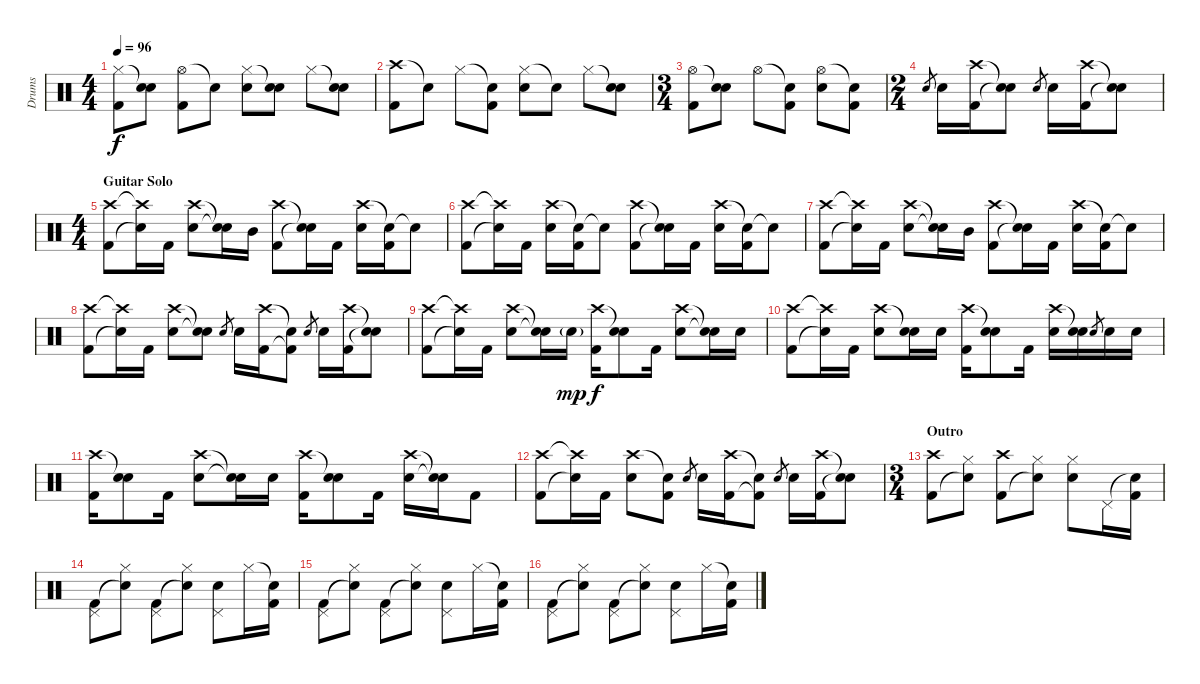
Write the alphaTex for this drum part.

\track ("Drums" "Drums") {instrument percussion}
\staff {score}
\articulation defaults
\ts (4 4)
\tempo 96
\clef neutral
\ks c
("Hi-Hat (closed)" "Kick (hit) 2").8{dy f} ("Snare (hit)"{t} "Electric Snare (hit)").8 ("Hi-Hat (open)" "Kick (hit) 2").8 "Snare (hit)"{t}.8 ("Hi-Hat (closed)" "Electric Snare (hit)").8 ("Snare (hit)"{t} "Electric Snare (hit)").8 "Hi-Hat (closed)".8 ("Snare (hit)"{t} "Electric Snare (hit)").8 |
("Crash high (hit)" "Kick (hit) 2").8 "Snare (hit)"{t}.8 "Hi-Hat (closed)".8 ("Snare (hit)"{t} "Kick (hit) 2").8 ("Hi-Hat (closed)" "Electric Snare (hit)").8 "Snare (hit)"{t}.8 "Hi-Hat (closed)".8 ("Snare (hit)"{t} "Electric Snare (hit)").8 |
\ts (3 4)
("Hi-Hat (open)" "Kick (hit) 2").8 ("Snare (hit)"{t} "Electric Snare (hit)").8 "Hi-Hat (open)".8 ("Snare (hit)"{t} "Kick (hit) 2").8 ("Hi-Hat (open)" "Electric Snare (hit)").8 ("Snare (hit)"{t} "Kick (hit) 2").8 |
\ts (2 4)
"Electric Snare (hit)".8{gr} "Electric Snare (hit)".16 ("Crash high (hit)" "Kick (hit) 2").16 ("Snare (hit)"{t} "Snare (hit)"{t}).8 "Electric Snare (hit)".8{gr} "Electric Snare (hit)".16 ("Crash high (hit)" "Kick (hit) 2").16 ("Snare (hit)"{t} "Snare (hit)"{t}).8 |
\ts (4 4)
\section ("" "Guitar Solo")
("Crash high (hit)" "Kick (hit) 2").8 ("Crash high (hit)"{t} "Snare (hit)"{t}).16 "Kick (hit) 2".16 ("Crash high (hit)" "Electric Snare (hit)").8 ("Snare (hit)"{t} "Snare (hit)"{t}).16 "Mid Tom (hit)".16 ("Crash high (hit)" "Kick (hit) 2").8 ("Snare (hit)"{t} "Snare (hit)"{t}).16 "Kick (hit) 2".16 ("Crash high (hit)" "Electric Snare (hit)").16 ("Snare (hit)"{t} "Kick (hit) 2").16 "Snare (hit)"{t}.8 |
("Crash high (hit)" "Kick (hit) 2").8 ("Crash high (hit)"{t} "Snare (hit)"{t}).16 "Kick (hit) 2".16 ("Crash high (hit)" "Electric Snare (hit)").16 ("Snare (hit)"{t} "Kick (hit) 2").16 "Snare (hit)"{t}.8 ("Crash high (hit)" "Kick (hit) 2").8 ("Snare (hit)"{t} "Snare (hit)"{t}).16 "Kick (hit) 2".16 ("Crash high (hit)" "Electric Snare (hit)").16 ("Snare (hit)"{t} "Kick (hit) 2").16 "Snare (hit)"{t}.8 |
("Crash high (hit)" "Kick (hit) 2").8 ("Crash high (hit)"{t} "Snare (hit)"{t}).16 "Kick (hit) 2".16 ("Crash high (hit)" "Electric Snare (hit)").8 ("Snare (hit)"{t} "Snare (hit)"{t}).16 "Mid Tom (hit)".16 ("Crash high (hit)" "Kick (hit) 2").8 ("Snare (hit)"{t} "Snare (hit)"{t}).16 "Kick (hit) 2".16 ("Crash high (hit)" "Electric Snare (hit)").16 ("Snare (hit)"{t} "Kick (hit) 2").16 "Snare (hit)"{t}.8 |
("Crash high (hit)" "Kick (hit) 2").8 ("Crash high (hit)"{t} "Snare (hit)"{t}).16 "Kick (hit) 2".16 ("Crash high (hit)" "Electric Snare (hit)").8 ("Snare (hit)"{t} "Snare (hit)"{t}).8 "Electric Snare (hit)".8{gr} "Electric Snare (hit)".16 ("Crash high (hit)" "Kick (hit) 2").16 ("Snare (hit)"{t} "Kick (hit) 2"{t}).8 "Electric Snare (hit)".8{gr} "Electric Snare (hit)".16 ("Crash high (hit)" "Kick (hit) 2").16 ("Snare (hit)"{t} "Snare (hit)"{t}).8 |
("Crash high (hit)" "Kick (hit) 2").8 ("Crash high (hit)"{t} "Snare (hit)"{t}).16 "Kick (hit) 2".16 ("Crash high (hit)" "Electric Snare (hit)").8 ("Snare (hit)"{t} "Snare (hit)"{t}).16 "Electric Snare (hit)"{g}.16{dy mp} ("Crash high (hit)" "Kick (hit) 2").16{dy f} ("Snare (hit)"{t} "Electric Snare (hit)").8 "Kick (hit) 2".16 ("Crash high (hit)" "Electric Snare (hit)").8 ("Snare (hit)"{t} "Snare (hit)"{t}).16 "Electric Snare (hit)".16 |
("Crash high (hit)" "Kick (hit) 2").8 ("Crash high (hit)"{t} "Snare (hit)"{t}).16 "Kick (hit) 2".16 ("Crash high (hit)" "Electric Snare (hit)").8 ("Snare (hit)"{t} "Electric Snare (hit)").16 "Electric Snare (hit)".16 ("Crash high (hit)" "Kick (hit) 2").16 ("Snare (hit)"{t} "Electric Snare (hit)").8 "Kick (hit) 2".16 ("Crash high (hit)" "Electric Snare (hit)").16 ("Snare (hit)"{t} "Electric Snare (hit)").16 "Electric Snare (hit)".8{gr} "Electric Snare (hit)".16 "Electric Snare (hit)".16 |
("Crash high (hit)" "Kick (hit) 2").16 ("Snare (hit)"{t} "Electric Snare (hit)").8 "Kick (hit) 2".16 ("Crash high (hit)" "Electric Snare (hit)").8 ("Snare (hit)"{t} "Snare (hit)"{t}).16 "Electric Snare (hit)".16 ("Crash high (hit)" "Kick (hit) 2").16 ("Snare (hit)"{t} "Electric Snare (hit)").8 "Kick (hit) 2".16 ("Crash high (hit)" "Electric Snare (hit)").16 ("Snare (hit)"{t} "Snare (hit)"{t}).16 "Kick (hit) 2".8 |
("Crash high (hit)" "Kick (hit) 2").8 ("Crash high (hit)"{t} "Snare (hit)"{t}).16 "Kick (hit) 2".16 ("Crash high (hit)" "Electric Snare (hit)").8 ("Snare (hit)"{t} "Kick (hit) 2").8 "Electric Snare (hit)".8{gr} "Electric Snare (hit)".16 ("Crash high (hit)" "Kick (hit) 2").16 ("Snare (hit)"{t} "Kick (hit) 2"{t}).8 "Electric Snare (hit)".8{gr} "Electric Snare (hit)".16 ("Crash high (hit)" "Kick (hit) 2").16 ("Snare (hit)"{t} "Snare (hit)"{t}).8 |
\ts (3 4)
\section ("" "Outro")
("Crash high (hit)" "Kick (hit) 2").8 ("Hi-Hat (closed)" "Snare (hit)"{t}).8 ("Crash high (hit)" "Kick (hit) 2").8 ("Hi-Hat (closed)" "Snare (hit)"{t}).8 ("Hi-Hat (closed)" "Electric Snare (hit)").8 "Pedal Hi-Hat (hit)".16 ("Snare (hit)"{t} "Kick (hit) 2").16 |
("Pedal Hi-Hat (hit)" "Kick (hit) 2").8 ("Hi-Hat (closed)" "Snare (hit)"{t}).8 ("Pedal Hi-Hat (hit)" "Kick (hit) 2").8 ("Hi-Hat (closed)" "Snare (hit)"{t}).8 ("Pedal Hi-Hat (hit)" "Electric Snare (hit)").8 "Hi-Hat (closed)".16 ("Snare (hit)"{t} "Kick (hit) 2").16 |
("Pedal Hi-Hat (hit)" "Kick (hit) 2").8 ("Hi-Hat (closed)" "Snare (hit)"{t}).8 ("Pedal Hi-Hat (hit)" "Kick (hit) 2").8 ("Hi-Hat (closed)" "Snare (hit)"{t}).8 ("Pedal Hi-Hat (hit)" "Electric Snare (hit)").8 "Hi-Hat (closed)".16 ("Snare (hit)"{t} "Kick (hit) 2").16 |
("Pedal Hi-Hat (hit)" "Kick (hit) 2").8 ("Hi-Hat (closed)" "Snare (hit)"{t}).8 ("Pedal Hi-Hat (hit)" "Kick (hit) 2").8 ("Hi-Hat (closed)" "Snare (hit)"{t}).8 ("Pedal Hi-Hat (hit)" "Electric Snare (hit)").8 "Hi-Hat (closed)".16 ("Snare (hit)"{t} "Kick (hit) 2").16
